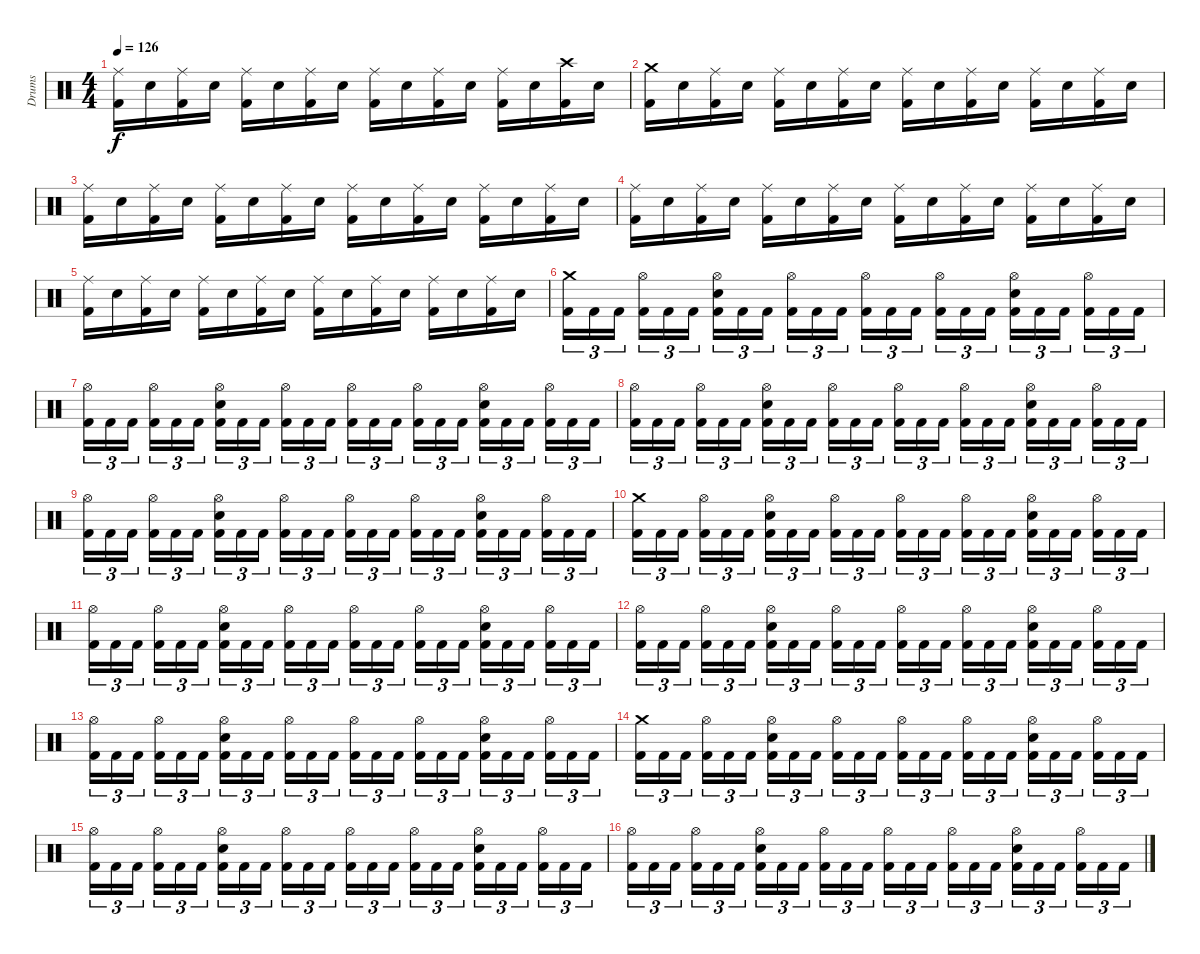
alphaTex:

\track ("Drums" "Drums") {instrument percussion}
\staff {score}
\articulation defaults
\ts (4 4)
\tempo 126
\clef neutral
\ks c
("Kick (hit) 2" "Ride (middle)").16{dy f} "Electric Snare (hit)".16 ("Kick (hit) 2" "Ride (middle)").16 "Electric Snare (hit)".16 ("Kick (hit) 2" "Ride (middle)").16 "Electric Snare (hit)".16 ("Kick (hit) 2" "Ride (middle)").16 "Electric Snare (hit)".16 ("Kick (hit) 2" "Ride (middle)").16 "Electric Snare (hit)".16 ("Kick (hit) 2" "Ride (middle)").16 "Electric Snare (hit)".16 ("Kick (hit) 2" "Ride (middle)").16 "Electric Snare (hit)".16 ("Kick (hit) 2" "Crash high (hit)").16 "Electric Snare (hit)".16 |
("Kick (hit) 2" "Crash medium (hit)").16 "Electric Snare (hit)".16 ("Kick (hit) 2" "Ride (middle)").16 "Electric Snare (hit)".16 ("Kick (hit) 2" "Ride (middle)").16 "Electric Snare (hit)".16 ("Kick (hit) 2" "Ride (middle)").16 "Electric Snare (hit)".16 ("Kick (hit) 2" "Ride (middle)").16 "Electric Snare (hit)".16 ("Kick (hit) 2" "Ride (middle)").16 "Electric Snare (hit)".16 ("Kick (hit) 2" "Ride (middle)").16 "Electric Snare (hit)".16 ("Kick (hit) 2" "Ride (middle)").16 "Electric Snare (hit)".16 |
("Kick (hit) 2" "Ride (middle)").16 "Electric Snare (hit)".16 ("Kick (hit) 2" "Ride (middle)").16 "Electric Snare (hit)".16 ("Kick (hit) 2" "Ride (middle)").16 "Electric Snare (hit)".16 ("Kick (hit) 2" "Ride (middle)").16 "Electric Snare (hit)".16 ("Kick (hit) 2" "Ride (middle)").16 "Electric Snare (hit)".16 ("Kick (hit) 2" "Ride (middle)").16 "Electric Snare (hit)".16 ("Kick (hit) 2" "Ride (middle)").16 "Electric Snare (hit)".16 ("Kick (hit) 2" "Ride (middle)").16 "Electric Snare (hit)".16 |
("Kick (hit) 2" "Ride (middle)").16 "Electric Snare (hit)".16 ("Kick (hit) 2" "Ride (middle)").16 "Electric Snare (hit)".16 ("Kick (hit) 2" "Ride (middle)").16 "Electric Snare (hit)".16 ("Kick (hit) 2" "Ride (middle)").16 "Electric Snare (hit)".16 ("Kick (hit) 2" "Ride (middle)").16 "Electric Snare (hit)".16 ("Kick (hit) 2" "Ride (middle)").16 "Electric Snare (hit)".16 ("Kick (hit) 2" "Ride (middle)").16 "Electric Snare (hit)".16 ("Kick (hit) 2" "Ride (middle)").16 "Electric Snare (hit)".16 |
("Kick (hit) 2" "Ride (middle)").16 "Electric Snare (hit)".16 ("Kick (hit) 2" "Ride (middle)").16 "Electric Snare (hit)".16 ("Kick (hit) 2" "Ride (middle)").16 "Electric Snare (hit)".16 ("Kick (hit) 2" "Ride (middle)").16 "Electric Snare (hit)".16 ("Kick (hit) 2" "Ride (middle)").16 "Electric Snare (hit)".16 ("Kick (hit) 2" "Ride (middle)").16 "Electric Snare (hit)".16 ("Kick (hit) 2" "Ride (middle)").16 "Electric Snare (hit)".16 ("Kick (hit) 2" "Ride (middle)").16 "Electric Snare (hit)".16 |
("Kick (hit) 2" "Crash medium (hit)").16{tu (3 2)} "Kick (hit) 2".16{tu (3 2)} "Kick (hit) 2".16{tu (3 2)} ("Kick (hit) 2" "Hi-Hat (open)").16{tu (3 2)} "Kick (hit) 2".16{tu (3 2)} "Kick (hit) 2".16{tu (3 2)} ("Kick (hit) 2" "Electric Snare (hit)" "Hi-Hat (open)").16{tu (3 2)} "Kick (hit) 2".16{tu (3 2)} "Kick (hit) 2".16{tu (3 2)} ("Kick (hit) 2" "Hi-Hat (open)").16{tu (3 2)} "Kick (hit) 2".16{tu (3 2)} "Kick (hit) 2".16{tu (3 2)} ("Kick (hit) 2" "Hi-Hat (open)").16{tu (3 2)} "Kick (hit) 2".16{tu (3 2)} "Kick (hit) 2".16{tu (3 2)} ("Kick (hit) 2" "Hi-Hat (open)").16{tu (3 2)} "Kick (hit) 2".16{tu (3 2)} "Kick (hit) 2".16{tu (3 2)} ("Kick (hit) 2" "Electric Snare (hit)" "Hi-Hat (open)").16{tu (3 2)} "Kick (hit) 2".16{tu (3 2)} "Kick (hit) 2".16{tu (3 2)} ("Kick (hit) 2" "Hi-Hat (open)").16{tu (3 2)} "Kick (hit) 2".16{tu (3 2)} "Kick (hit) 2".16{tu (3 2)} |
("Kick (hit) 2" "Hi-Hat (open)").16{tu (3 2)} "Kick (hit) 2".16{tu (3 2)} "Kick (hit) 2".16{tu (3 2)} ("Kick (hit) 2" "Hi-Hat (open)").16{tu (3 2)} "Kick (hit) 2".16{tu (3 2)} "Kick (hit) 2".16{tu (3 2)} ("Kick (hit) 2" "Electric Snare (hit)" "Hi-Hat (open)").16{tu (3 2)} "Kick (hit) 2".16{tu (3 2)} "Kick (hit) 2".16{tu (3 2)} ("Kick (hit) 2" "Hi-Hat (open)").16{tu (3 2)} "Kick (hit) 2".16{tu (3 2)} "Kick (hit) 2".16{tu (3 2)} ("Kick (hit) 2" "Hi-Hat (open)").16{tu (3 2)} "Kick (hit) 2".16{tu (3 2)} "Kick (hit) 2".16{tu (3 2)} ("Kick (hit) 2" "Hi-Hat (open)").16{tu (3 2)} "Kick (hit) 2".16{tu (3 2)} "Kick (hit) 2".16{tu (3 2)} ("Kick (hit) 2" "Electric Snare (hit)" "Hi-Hat (open)").16{tu (3 2)} "Kick (hit) 2".16{tu (3 2)} "Kick (hit) 2".16{tu (3 2)} ("Kick (hit) 2" "Hi-Hat (open)").16{tu (3 2)} "Kick (hit) 2".16{tu (3 2)} "Kick (hit) 2".16{tu (3 2)} |
("Kick (hit) 2" "Hi-Hat (open)").16{tu (3 2)} "Kick (hit) 2".16{tu (3 2)} "Kick (hit) 2".16{tu (3 2)} ("Kick (hit) 2" "Hi-Hat (open)").16{tu (3 2)} "Kick (hit) 2".16{tu (3 2)} "Kick (hit) 2".16{tu (3 2)} ("Kick (hit) 2" "Electric Snare (hit)" "Hi-Hat (open)").16{tu (3 2)} "Kick (hit) 2".16{tu (3 2)} "Kick (hit) 2".16{tu (3 2)} ("Kick (hit) 2" "Hi-Hat (open)").16{tu (3 2)} "Kick (hit) 2".16{tu (3 2)} "Kick (hit) 2".16{tu (3 2)} ("Kick (hit) 2" "Hi-Hat (open)").16{tu (3 2)} "Kick (hit) 2".16{tu (3 2)} "Kick (hit) 2".16{tu (3 2)} ("Kick (hit) 2" "Hi-Hat (open)").16{tu (3 2)} "Kick (hit) 2".16{tu (3 2)} "Kick (hit) 2".16{tu (3 2)} ("Kick (hit) 2" "Electric Snare (hit)" "Hi-Hat (open)").16{tu (3 2)} "Kick (hit) 2".16{tu (3 2)} "Kick (hit) 2".16{tu (3 2)} ("Kick (hit) 2" "Hi-Hat (open)").16{tu (3 2)} "Kick (hit) 2".16{tu (3 2)} "Kick (hit) 2".16{tu (3 2)} |
("Kick (hit) 2" "Hi-Hat (open)").16{tu (3 2)} "Kick (hit) 2".16{tu (3 2)} "Kick (hit) 2".16{tu (3 2)} ("Kick (hit) 2" "Hi-Hat (open)").16{tu (3 2)} "Kick (hit) 2".16{tu (3 2)} "Kick (hit) 2".16{tu (3 2)} ("Kick (hit) 2" "Electric Snare (hit)" "Hi-Hat (open)").16{tu (3 2)} "Kick (hit) 2".16{tu (3 2)} "Kick (hit) 2".16{tu (3 2)} ("Kick (hit) 2" "Hi-Hat (open)").16{tu (3 2)} "Kick (hit) 2".16{tu (3 2)} "Kick (hit) 2".16{tu (3 2)} ("Kick (hit) 2" "Hi-Hat (open)").16{tu (3 2)} "Kick (hit) 2".16{tu (3 2)} "Kick (hit) 2".16{tu (3 2)} ("Kick (hit) 2" "Hi-Hat (open)").16{tu (3 2)} "Kick (hit) 2".16{tu (3 2)} "Kick (hit) 2".16{tu (3 2)} ("Kick (hit) 2" "Electric Snare (hit)" "Hi-Hat (open)").16{tu (3 2)} "Kick (hit) 2".16{tu (3 2)} "Kick (hit) 2".16{tu (3 2)} ("Kick (hit) 2" "Hi-Hat (open)").16{tu (3 2)} "Kick (hit) 2".16{tu (3 2)} "Kick (hit) 2".16{tu (3 2)} |
("Kick (hit) 2" "Crash medium (hit)").16{tu (3 2)} "Kick (hit) 2".16{tu (3 2)} "Kick (hit) 2".16{tu (3 2)} ("Kick (hit) 2" "Hi-Hat (open)").16{tu (3 2)} "Kick (hit) 2".16{tu (3 2)} "Kick (hit) 2".16{tu (3 2)} ("Kick (hit) 2" "Electric Snare (hit)" "Hi-Hat (open)").16{tu (3 2)} "Kick (hit) 2".16{tu (3 2)} "Kick (hit) 2".16{tu (3 2)} ("Kick (hit) 2" "Hi-Hat (open)").16{tu (3 2)} "Kick (hit) 2".16{tu (3 2)} "Kick (hit) 2".16{tu (3 2)} ("Kick (hit) 2" "Hi-Hat (open)").16{tu (3 2)} "Kick (hit) 2".16{tu (3 2)} "Kick (hit) 2".16{tu (3 2)} ("Kick (hit) 2" "Hi-Hat (open)").16{tu (3 2)} "Kick (hit) 2".16{tu (3 2)} "Kick (hit) 2".16{tu (3 2)} ("Kick (hit) 2" "Electric Snare (hit)" "Hi-Hat (open)").16{tu (3 2)} "Kick (hit) 2".16{tu (3 2)} "Kick (hit) 2".16{tu (3 2)} ("Kick (hit) 2" "Hi-Hat (open)").16{tu (3 2)} "Kick (hit) 2".16{tu (3 2)} "Kick (hit) 2".16{tu (3 2)} |
("Kick (hit) 2" "Hi-Hat (open)").16{tu (3 2)} "Kick (hit) 2".16{tu (3 2)} "Kick (hit) 2".16{tu (3 2)} ("Kick (hit) 2" "Hi-Hat (open)").16{tu (3 2)} "Kick (hit) 2".16{tu (3 2)} "Kick (hit) 2".16{tu (3 2)} ("Kick (hit) 2" "Electric Snare (hit)" "Hi-Hat (open)").16{tu (3 2)} "Kick (hit) 2".16{tu (3 2)} "Kick (hit) 2".16{tu (3 2)} ("Kick (hit) 2" "Hi-Hat (open)").16{tu (3 2)} "Kick (hit) 2".16{tu (3 2)} "Kick (hit) 2".16{tu (3 2)} ("Kick (hit) 2" "Hi-Hat (open)").16{tu (3 2)} "Kick (hit) 2".16{tu (3 2)} "Kick (hit) 2".16{tu (3 2)} ("Kick (hit) 2" "Hi-Hat (open)").16{tu (3 2)} "Kick (hit) 2".16{tu (3 2)} "Kick (hit) 2".16{tu (3 2)} ("Kick (hit) 2" "Electric Snare (hit)" "Hi-Hat (open)").16{tu (3 2)} "Kick (hit) 2".16{tu (3 2)} "Kick (hit) 2".16{tu (3 2)} ("Kick (hit) 2" "Hi-Hat (open)").16{tu (3 2)} "Kick (hit) 2".16{tu (3 2)} "Kick (hit) 2".16{tu (3 2)} |
("Kick (hit) 2" "Hi-Hat (open)").16{tu (3 2)} "Kick (hit) 2".16{tu (3 2)} "Kick (hit) 2".16{tu (3 2)} ("Kick (hit) 2" "Hi-Hat (open)").16{tu (3 2)} "Kick (hit) 2".16{tu (3 2)} "Kick (hit) 2".16{tu (3 2)} ("Kick (hit) 2" "Electric Snare (hit)" "Hi-Hat (open)").16{tu (3 2)} "Kick (hit) 2".16{tu (3 2)} "Kick (hit) 2".16{tu (3 2)} ("Kick (hit) 2" "Hi-Hat (open)").16{tu (3 2)} "Kick (hit) 2".16{tu (3 2)} "Kick (hit) 2".16{tu (3 2)} ("Kick (hit) 2" "Hi-Hat (open)").16{tu (3 2)} "Kick (hit) 2".16{tu (3 2)} "Kick (hit) 2".16{tu (3 2)} ("Kick (hit) 2" "Hi-Hat (open)").16{tu (3 2)} "Kick (hit) 2".16{tu (3 2)} "Kick (hit) 2".16{tu (3 2)} ("Kick (hit) 2" "Electric Snare (hit)" "Hi-Hat (open)").16{tu (3 2)} "Kick (hit) 2".16{tu (3 2)} "Kick (hit) 2".16{tu (3 2)} ("Kick (hit) 2" "Hi-Hat (open)").16{tu (3 2)} "Kick (hit) 2".16{tu (3 2)} "Kick (hit) 2".16{tu (3 2)} |
("Kick (hit) 2" "Hi-Hat (open)").16{tu (3 2)} "Kick (hit) 2".16{tu (3 2)} "Kick (hit) 2".16{tu (3 2)} ("Kick (hit) 2" "Hi-Hat (open)").16{tu (3 2)} "Kick (hit) 2".16{tu (3 2)} "Kick (hit) 2".16{tu (3 2)} ("Kick (hit) 2" "Electric Snare (hit)" "Hi-Hat (open)").16{tu (3 2)} "Kick (hit) 2".16{tu (3 2)} "Kick (hit) 2".16{tu (3 2)} ("Kick (hit) 2" "Hi-Hat (open)").16{tu (3 2)} "Kick (hit) 2".16{tu (3 2)} "Kick (hit) 2".16{tu (3 2)} ("Kick (hit) 2" "Hi-Hat (open)").16{tu (3 2)} "Kick (hit) 2".16{tu (3 2)} "Kick (hit) 2".16{tu (3 2)} ("Kick (hit) 2" "Hi-Hat (open)").16{tu (3 2)} "Kick (hit) 2".16{tu (3 2)} "Kick (hit) 2".16{tu (3 2)} ("Kick (hit) 2" "Electric Snare (hit)" "Hi-Hat (open)").16{tu (3 2)} "Kick (hit) 2".16{tu (3 2)} "Kick (hit) 2".16{tu (3 2)} ("Kick (hit) 2" "Hi-Hat (open)").16{tu (3 2)} "Kick (hit) 2".16{tu (3 2)} "Kick (hit) 2".16{tu (3 2)} |
("Kick (hit) 2" "Crash medium (hit)").16{tu (3 2)} "Kick (hit) 2".16{tu (3 2)} "Kick (hit) 2".16{tu (3 2)} ("Kick (hit) 2" "Hi-Hat (open)").16{tu (3 2)} "Kick (hit) 2".16{tu (3 2)} "Kick (hit) 2".16{tu (3 2)} ("Kick (hit) 2" "Electric Snare (hit)" "Hi-Hat (open)").16{tu (3 2)} "Kick (hit) 2".16{tu (3 2)} "Kick (hit) 2".16{tu (3 2)} ("Kick (hit) 2" "Hi-Hat (open)").16{tu (3 2)} "Kick (hit) 2".16{tu (3 2)} "Kick (hit) 2".16{tu (3 2)} ("Kick (hit) 2" "Hi-Hat (open)").16{tu (3 2)} "Kick (hit) 2".16{tu (3 2)} "Kick (hit) 2".16{tu (3 2)} ("Kick (hit) 2" "Hi-Hat (open)").16{tu (3 2)} "Kick (hit) 2".16{tu (3 2)} "Kick (hit) 2".16{tu (3 2)} ("Kick (hit) 2" "Electric Snare (hit)" "Hi-Hat (open)").16{tu (3 2)} "Kick (hit) 2".16{tu (3 2)} "Kick (hit) 2".16{tu (3 2)} ("Kick (hit) 2" "Hi-Hat (open)").16{tu (3 2)} "Kick (hit) 2".16{tu (3 2)} "Kick (hit) 2".16{tu (3 2)} |
("Kick (hit) 2" "Hi-Hat (open)").16{tu (3 2)} "Kick (hit) 2".16{tu (3 2)} "Kick (hit) 2".16{tu (3 2)} ("Kick (hit) 2" "Hi-Hat (open)").16{tu (3 2)} "Kick (hit) 2".16{tu (3 2)} "Kick (hit) 2".16{tu (3 2)} ("Kick (hit) 2" "Electric Snare (hit)" "Hi-Hat (open)").16{tu (3 2)} "Kick (hit) 2".16{tu (3 2)} "Kick (hit) 2".16{tu (3 2)} ("Kick (hit) 2" "Hi-Hat (open)").16{tu (3 2)} "Kick (hit) 2".16{tu (3 2)} "Kick (hit) 2".16{tu (3 2)} ("Kick (hit) 2" "Hi-Hat (open)").16{tu (3 2)} "Kick (hit) 2".16{tu (3 2)} "Kick (hit) 2".16{tu (3 2)} ("Kick (hit) 2" "Hi-Hat (open)").16{tu (3 2)} "Kick (hit) 2".16{tu (3 2)} "Kick (hit) 2".16{tu (3 2)} ("Kick (hit) 2" "Electric Snare (hit)" "Hi-Hat (open)").16{tu (3 2)} "Kick (hit) 2".16{tu (3 2)} "Kick (hit) 2".16{tu (3 2)} ("Kick (hit) 2" "Hi-Hat (open)").16{tu (3 2)} "Kick (hit) 2".16{tu (3 2)} "Kick (hit) 2".16{tu (3 2)} |
("Kick (hit) 2" "Hi-Hat (open)").16{tu (3 2)} "Kick (hit) 2".16{tu (3 2)} "Kick (hit) 2".16{tu (3 2)} ("Kick (hit) 2" "Hi-Hat (open)").16{tu (3 2)} "Kick (hit) 2".16{tu (3 2)} "Kick (hit) 2".16{tu (3 2)} ("Kick (hit) 2" "Electric Snare (hit)" "Hi-Hat (open)").16{tu (3 2)} "Kick (hit) 2".16{tu (3 2)} "Kick (hit) 2".16{tu (3 2)} ("Kick (hit) 2" "Hi-Hat (open)").16{tu (3 2)} "Kick (hit) 2".16{tu (3 2)} "Kick (hit) 2".16{tu (3 2)} ("Kick (hit) 2" "Hi-Hat (open)").16{tu (3 2)} "Kick (hit) 2".16{tu (3 2)} "Kick (hit) 2".16{tu (3 2)} ("Kick (hit) 2" "Hi-Hat (open)").16{tu (3 2)} "Kick (hit) 2".16{tu (3 2)} "Kick (hit) 2".16{tu (3 2)} ("Kick (hit) 2" "Electric Snare (hit)" "Hi-Hat (open)").16{tu (3 2)} "Kick (hit) 2".16{tu (3 2)} "Kick (hit) 2".16{tu (3 2)} ("Kick (hit) 2" "Hi-Hat (open)").16{tu (3 2)} "Kick (hit) 2".16{tu (3 2)} "Kick (hit) 2".16{tu (3 2)}
